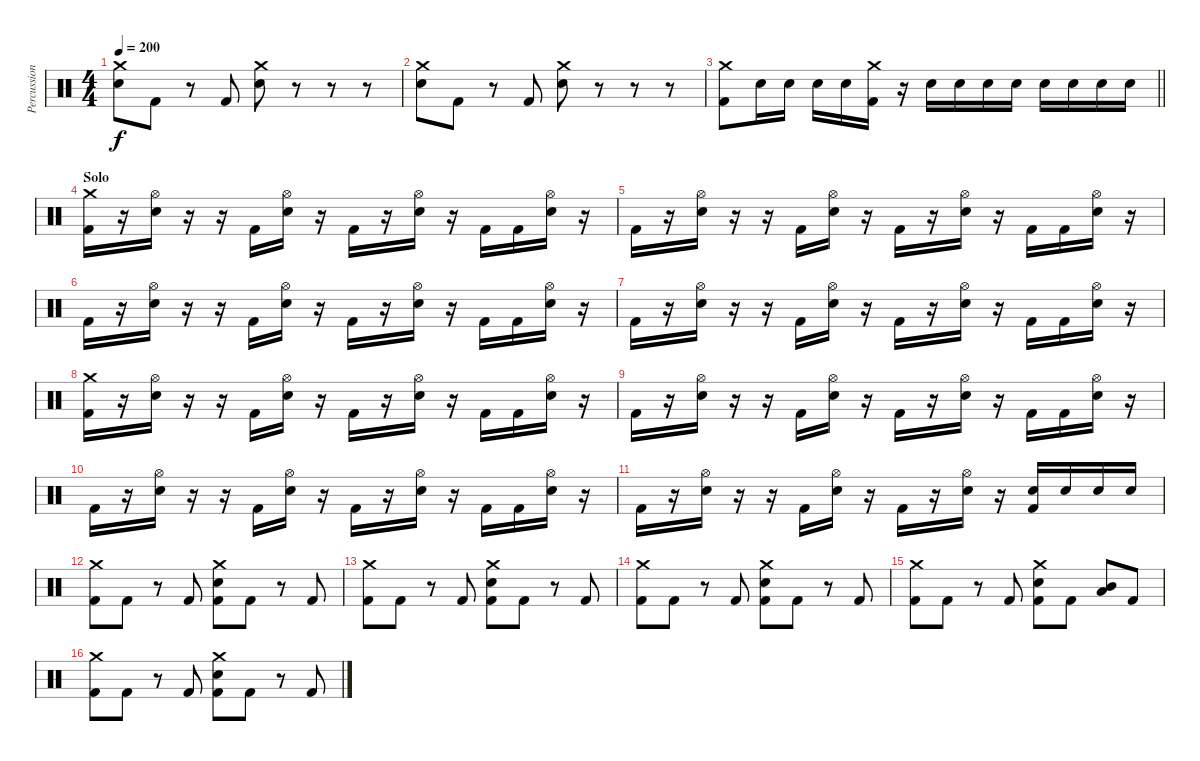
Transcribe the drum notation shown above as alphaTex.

\track ("Percussion" "Percussion") {instrument percussion}
\staff {score}
\articulation defaults
\ts (4 4)
\tempo 200
\clef neutral
\ks c
("Crash medium (hit)" "Electric Snare (hit)").8{dy f} "Kick (hit) 2".8 r.8 "Kick (hit) 2".8 ("Crash medium (hit)" "Electric Snare (hit)").8 r.8 r.8 r.8 |
("Crash medium (hit)" "Electric Snare (hit)").8 "Kick (hit) 2".8 r.8 "Kick (hit) 2".8 ("Crash medium (hit)" "Electric Snare (hit)").8 r.8 r.8 r.8 |
\barLineRight lightlight
("Crash medium (hit)" "Kick (hit) 2").8 "Electric Snare (hit)".16 "Electric Snare (hit)".16 "Electric Snare (hit)".16 "Electric Snare (hit)".16 ("Crash medium (hit)" "Kick (hit) 2").16 r.16 "Electric Snare (hit)".16 "Electric Snare (hit)".16 "Electric Snare (hit)".16 "Electric Snare (hit)".16 "Electric Snare (hit)".16 "Electric Snare (hit)".16 "Electric Snare (hit)".16 "Electric Snare (hit)".16 |
\section ("" "Solo")
("Crash medium (hit)" "Kick (hit) 2").16 r.16 ("Hi-Hat (open)" "Electric Snare (hit)").16 r.16 r.16 "Kick (hit) 2".16 ("Hi-Hat (open)" "Electric Snare (hit)").16 r.16 "Kick (hit) 2".16 r.16 ("Hi-Hat (open)" "Electric Snare (hit)").16 r.16 "Kick (hit) 2".16 "Kick (hit) 2".16 ("Hi-Hat (open)" "Electric Snare (hit)").16 r.16 |
"Kick (hit) 2".16 r.16 ("Hi-Hat (open)" "Electric Snare (hit)").16 r.16 r.16 "Kick (hit) 2".16 ("Hi-Hat (open)" "Electric Snare (hit)").16 r.16 "Kick (hit) 2".16 r.16 ("Hi-Hat (open)" "Electric Snare (hit)").16 r.16 "Kick (hit) 2".16 "Kick (hit) 2".16 ("Hi-Hat (open)" "Electric Snare (hit)").16 r.16 |
"Kick (hit) 2".16 r.16 ("Hi-Hat (open)" "Electric Snare (hit)").16 r.16 r.16 "Kick (hit) 2".16 ("Hi-Hat (open)" "Electric Snare (hit)").16 r.16 "Kick (hit) 2".16 r.16 ("Hi-Hat (open)" "Electric Snare (hit)").16 r.16 "Kick (hit) 2".16 "Kick (hit) 2".16 ("Hi-Hat (open)" "Electric Snare (hit)").16 r.16 |
"Kick (hit) 2".16 r.16 ("Hi-Hat (open)" "Electric Snare (hit)").16 r.16 r.16 "Kick (hit) 2".16 ("Hi-Hat (open)" "Electric Snare (hit)").16 r.16 "Kick (hit) 2".16 r.16 ("Hi-Hat (open)" "Electric Snare (hit)").16 r.16 "Kick (hit) 2".16 "Kick (hit) 2".16 ("Hi-Hat (open)" "Electric Snare (hit)").16 r.16 |
("Crash medium (hit)" "Kick (hit) 2").16 r.16 ("Hi-Hat (open)" "Electric Snare (hit)").16 r.16 r.16 "Kick (hit) 2".16 ("Hi-Hat (open)" "Electric Snare (hit)").16 r.16 "Kick (hit) 2".16 r.16 ("Hi-Hat (open)" "Electric Snare (hit)").16 r.16 "Kick (hit) 2".16 "Kick (hit) 2".16 ("Hi-Hat (open)" "Electric Snare (hit)").16 r.16 |
"Kick (hit) 2".16 r.16 ("Hi-Hat (open)" "Electric Snare (hit)").16 r.16 r.16 "Kick (hit) 2".16 ("Hi-Hat (open)" "Electric Snare (hit)").16 r.16 "Kick (hit) 2".16 r.16 ("Hi-Hat (open)" "Electric Snare (hit)").16 r.16 "Kick (hit) 2".16 "Kick (hit) 2".16 ("Hi-Hat (open)" "Electric Snare (hit)").16 r.16 |
"Kick (hit) 2".16 r.16 ("Hi-Hat (open)" "Electric Snare (hit)").16 r.16 r.16 "Kick (hit) 2".16 ("Hi-Hat (open)" "Electric Snare (hit)").16 r.16 "Kick (hit) 2".16 r.16 ("Hi-Hat (open)" "Electric Snare (hit)").16 r.16 "Kick (hit) 2".16 "Kick (hit) 2".16 ("Hi-Hat (open)" "Electric Snare (hit)").16 r.16 |
"Kick (hit) 2".16 r.16 ("Hi-Hat (open)" "Electric Snare (hit)").16 r.16 r.16 "Kick (hit) 2".16 ("Hi-Hat (open)" "Electric Snare (hit)").16 r.16 "Kick (hit) 2".16 r.16 ("Hi-Hat (open)" "Electric Snare (hit)").16 r.16 ("Electric Snare (hit)" "Kick (hit) 2").16 "Electric Snare (hit)".16 "Electric Snare (hit)".16 "Electric Snare (hit)".16 |
("Crash medium (hit)" "Kick (hit) 2").8 "Kick (hit) 2".8 r.8 "Kick (hit) 2".8 ("Crash medium (hit)" "Electric Snare (hit)" "Kick (hit) 2").8 "Kick (hit) 2".8 r.8 "Kick (hit) 2".8 |
("Crash medium (hit)" "Kick (hit) 2").8 "Kick (hit) 2".8 r.8 "Kick (hit) 2".8 ("Crash medium (hit)" "Electric Snare (hit)" "Kick (hit) 2").8 "Kick (hit) 2".8 r.8 "Kick (hit) 2".8 |
("Crash medium (hit)" "Kick (hit) 2").8 "Kick (hit) 2".8 r.8 "Kick (hit) 2".8 ("Crash medium (hit)" "Electric Snare (hit)" "Kick (hit) 2").8 "Kick (hit) 2".8 r.8 "Kick (hit) 2".8 |
("Crash medium (hit)" "Kick (hit) 2").8 "Kick (hit) 2".8 r.8 "Kick (hit) 2".8 ("Crash medium (hit)" "Electric Snare (hit)" "Kick (hit) 2").8 "Kick (hit) 2".8 ("Mid Tom (hit)" "Low Tom (hit)").8 "Kick (hit) 2".8 |
("Crash medium (hit)" "Kick (hit) 2").8 "Kick (hit) 2".8 r.8 "Kick (hit) 2".8 ("Crash medium (hit)" "Electric Snare (hit)" "Kick (hit) 2").8 "Kick (hit) 2".8 r.8 "Kick (hit) 2".8
